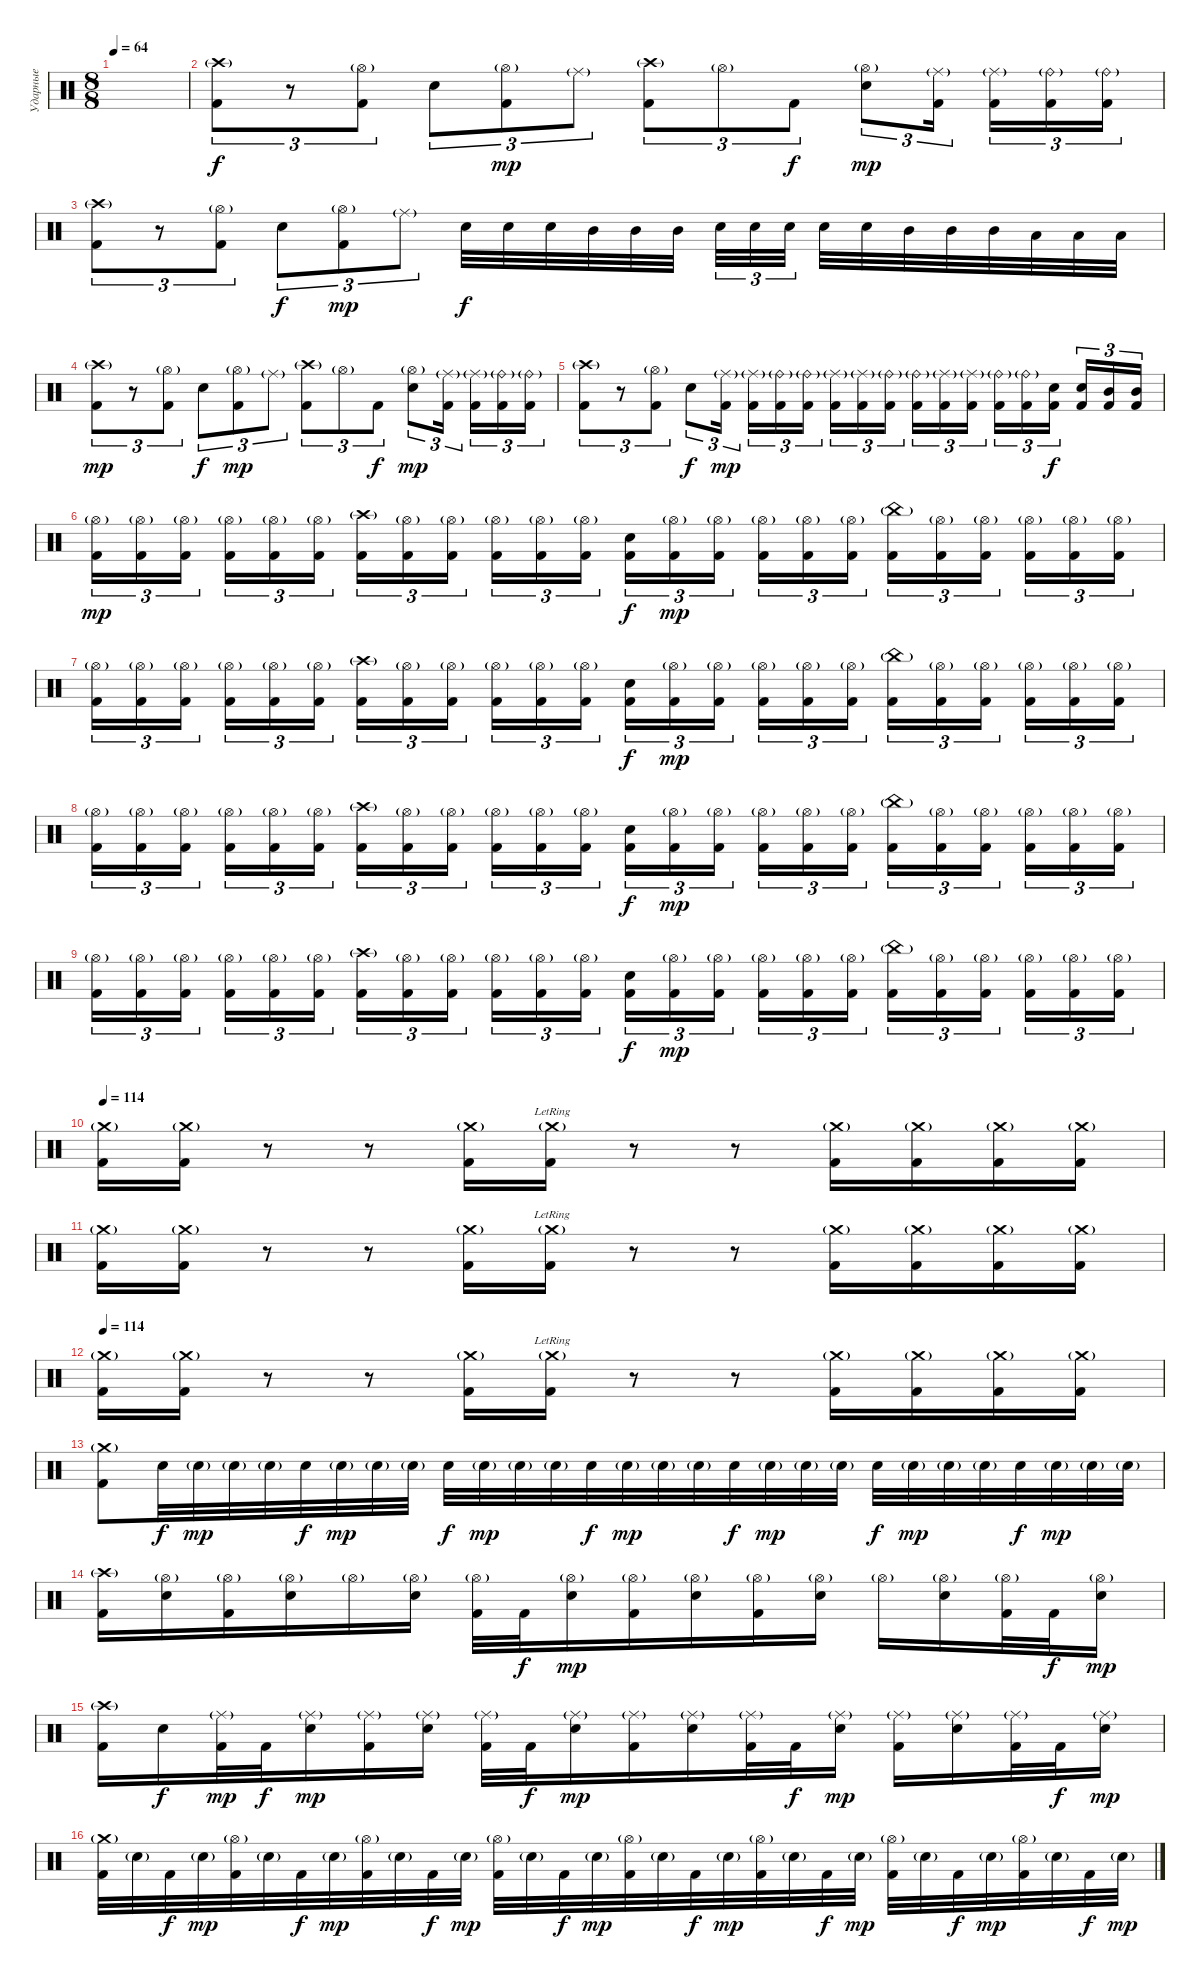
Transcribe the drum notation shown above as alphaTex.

\track ("Ударные" "Ударные") {instrument percussion}
\staff {score}
\articulation defaults
\ts (8 8)
\tempo 64
\clef neutral
\ks c
|
("Crash high (hit)"{g} "Kick (hit) 2").8{tu (3 2)} r.8{tu (3 2)} ("Hi-Hat (open)"{g} "Kick (hit) 2").8{tu (3 2)} "Electric Snare (hit)".8{tu (3 2) dy f} ("Hi-Hat (open)"{g} "Kick (hit) 2").8{tu (3 2) dy mp} "Ride (middle)"{g}.8{tu (3 2)} ("Crash high (hit)"{g} "Kick (hit) 2").8{tu (3 2)} "Hi-Hat (open)"{g}.8{tu (3 2)} "Kick (hit) 2".8{tu (3 2) dy f} ("Hi-Hat (open)"{g} "Electric Snare (hit)").8{tu (3 2) dy mp} ("Ride (middle)"{g} "Kick (hit) 2").16{tu (3 2)} ("Ride (middle)"{g} "Kick (hit) 2").16{tu (3 2)} ("Ride (bell)"{g} "Kick (hit) 2").16{tu (3 2)} ("Ride (bell)"{g} "Kick (hit) 2").16{tu (3 2)} |
("Crash high (hit)"{g} "Kick (hit) 2").8{tu (3 2)} r.8{tu (3 2)} ("Hi-Hat (open)"{g} "Kick (hit) 2").8{tu (3 2)} "Electric Snare (hit)".8{tu (3 2) dy f} ("Hi-Hat (open)"{g} "Kick (hit) 2").8{tu (3 2) dy mp} "Ride (middle)"{g}.8{tu (3 2)} "Electric Snare (hit)".32{dy f} "Electric Snare (hit)".32 "Electric Snare (hit)".32 "Mid Tom (hit)".32 "Mid Tom (hit)".32 "Mid Tom (hit)".32 "Electric Snare (hit)".32{tu (3 2)} "Electric Snare (hit)".32{tu (3 2)} "Electric Snare (hit)".32{tu (3 2)} "Electric Snare (hit)".32 "Electric Snare (hit)".32 "Mid Tom (hit)".32 "Mid Tom (hit)".32 "Mid Tom (hit)".32 "Low Tom (hit)".32 "Low Tom (hit)".32 "Low Tom (hit)".32 |
("Crash high (hit)"{g} "Kick (hit) 2").8{tu (3 2) dy mp} r.8{tu (3 2)} ("Hi-Hat (open)"{g} "Kick (hit) 2").8{tu (3 2)} "Electric Snare (hit)".8{tu (3 2) dy f} ("Hi-Hat (open)"{g} "Kick (hit) 2").8{tu (3 2) dy mp} "Ride (middle)"{g}.8{tu (3 2)} ("Crash high (hit)"{g} "Kick (hit) 2").8{tu (3 2)} "Hi-Hat (open)"{g}.8{tu (3 2)} "Kick (hit) 2".8{tu (3 2) dy f} ("Hi-Hat (open)"{g} "Electric Snare (hit)").8{tu (3 2) dy mp} ("Ride (middle)"{g} "Kick (hit) 2").16{tu (3 2)} ("Ride (middle)"{g} "Kick (hit) 2").16{tu (3 2)} ("Ride (bell)"{g} "Kick (hit) 2").16{tu (3 2)} ("Ride (bell)"{g} "Kick (hit) 2").16{tu (3 2)} |
("Crash high (hit)"{g} "Kick (hit) 2").8{tu (3 2)} r.8{tu (3 2)} ("Hi-Hat (open)"{g} "Kick (hit) 2").8{tu (3 2)} "Electric Snare (hit)".8{tu (3 2) dy f} ("Ride (middle)"{g} "Kick (hit) 2").16{tu (3 2) dy mp} ("Ride (middle)"{g} "Kick (hit) 2").16{tu (3 2)} ("Ride (bell)"{g} "Kick (hit) 2").16{tu (3 2)} ("Ride (bell)"{g} "Kick (hit) 2").16{tu (3 2)} ("Ride (middle)"{g} "Kick (hit) 2").16{tu (3 2)} ("Ride (middle)"{g} "Kick (hit) 2").16{tu (3 2)} ("Ride (bell)"{g} "Kick (hit) 2").16{tu (3 2)} ("Ride (bell)"{g} "Kick (hit) 2").16{tu (3 2)} ("Ride (middle)"{g} "Kick (hit) 2").16{tu (3 2)} ("Ride (middle)"{g} "Kick (hit) 2").16{tu (3 2)} ("Ride (bell)"{g} "Kick (hit) 2").16{tu (3 2)} ("Ride (bell)"{g} "Kick (hit) 2").16{tu (3 2)} ("Electric Snare (hit)" "Kick (hit) 2").16{tu (3 2) dy f} ("Electric Snare (hit)" "Kick (hit) 2").16{tu (3 2)} ("Mid Tom (hit)" "Kick (hit) 2").16{tu (3 2)} ("Mid Tom (hit)" "Kick (hit) 2").16{tu (3 2)} |
("Hi-Hat (open)"{g} "Kick (hit) 2").16{tu (3 2) dy mp} ("Hi-Hat (open)"{g} "Kick (hit) 2").16{tu (3 2)} ("Hi-Hat (open)"{g} "Kick (hit) 2").16{tu (3 2)} ("Hi-Hat (open)"{g} "Kick (hit) 2").16{tu (3 2)} ("Hi-Hat (open)"{g} "Kick (hit) 2").16{tu (3 2)} ("Hi-Hat (open)"{g} "Kick (hit) 2").16{tu (3 2)} ("Crash high (hit)"{g} "Kick (hit) 2").16{tu (3 2)} ("Hi-Hat (open)"{g} "Kick (hit) 2").16{tu (3 2)} ("Hi-Hat (open)"{g} "Kick (hit) 2").16{tu (3 2)} ("Hi-Hat (open)"{g} "Kick (hit) 2").16{tu (3 2)} ("Hi-Hat (open)"{g} "Kick (hit) 2").16{tu (3 2)} ("Hi-Hat (open)"{g} "Kick (hit) 2").16{tu (3 2)} ("Electric Snare (hit)" "Kick (hit) 2").16{tu (3 2) dy f} ("Hi-Hat (open)"{g} "Kick (hit) 2").16{tu (3 2) dy mp} ("Hi-Hat (open)"{g} "Kick (hit) 2").16{tu (3 2)} ("Hi-Hat (open)"{g} "Kick (hit) 2").16{tu (3 2)} ("Hi-Hat (open)"{g} "Kick (hit) 2").16{tu (3 2)} ("Hi-Hat (open)"{g} "Kick (hit) 2").16{tu (3 2)} ("China (hit)"{g} "Kick (hit) 2").16{tu (3 2)} ("Hi-Hat (open)"{g} "Kick (hit) 2").16{tu (3 2)} ("Hi-Hat (open)"{g} "Kick (hit) 2").16{tu (3 2)} ("Hi-Hat (open)"{g} "Kick (hit) 2").16{tu (3 2)} ("Hi-Hat (open)"{g} "Kick (hit) 2").16{tu (3 2)} ("Hi-Hat (open)"{g} "Kick (hit) 2").16{tu (3 2)} |
("Hi-Hat (open)"{g} "Kick (hit) 2").16{tu (3 2)} ("Hi-Hat (open)"{g} "Kick (hit) 2").16{tu (3 2)} ("Hi-Hat (open)"{g} "Kick (hit) 2").16{tu (3 2)} ("Hi-Hat (open)"{g} "Kick (hit) 2").16{tu (3 2)} ("Hi-Hat (open)"{g} "Kick (hit) 2").16{tu (3 2)} ("Hi-Hat (open)"{g} "Kick (hit) 2").16{tu (3 2)} ("Crash high (hit)"{g} "Kick (hit) 2").16{tu (3 2)} ("Hi-Hat (open)"{g} "Kick (hit) 2").16{tu (3 2)} ("Hi-Hat (open)"{g} "Kick (hit) 2").16{tu (3 2)} ("Hi-Hat (open)"{g} "Kick (hit) 2").16{tu (3 2)} ("Hi-Hat (open)"{g} "Kick (hit) 2").16{tu (3 2)} ("Hi-Hat (open)"{g} "Kick (hit) 2").16{tu (3 2)} ("Electric Snare (hit)" "Kick (hit) 2").16{tu (3 2) dy f} ("Hi-Hat (open)"{g} "Kick (hit) 2").16{tu (3 2) dy mp} ("Hi-Hat (open)"{g} "Kick (hit) 2").16{tu (3 2)} ("Hi-Hat (open)"{g} "Kick (hit) 2").16{tu (3 2)} ("Hi-Hat (open)"{g} "Kick (hit) 2").16{tu (3 2)} ("Hi-Hat (open)"{g} "Kick (hit) 2").16{tu (3 2)} ("China (hit)"{g} "Kick (hit) 2").16{tu (3 2)} ("Hi-Hat (open)"{g} "Kick (hit) 2").16{tu (3 2)} ("Hi-Hat (open)"{g} "Kick (hit) 2").16{tu (3 2)} ("Hi-Hat (open)"{g} "Kick (hit) 2").16{tu (3 2)} ("Hi-Hat (open)"{g} "Kick (hit) 2").16{tu (3 2)} ("Hi-Hat (open)"{g} "Kick (hit) 2").16{tu (3 2)} |
("Hi-Hat (open)"{g} "Kick (hit) 2").16{tu (3 2)} ("Hi-Hat (open)"{g} "Kick (hit) 2").16{tu (3 2)} ("Hi-Hat (open)"{g} "Kick (hit) 2").16{tu (3 2)} ("Hi-Hat (open)"{g} "Kick (hit) 2").16{tu (3 2)} ("Hi-Hat (open)"{g} "Kick (hit) 2").16{tu (3 2)} ("Hi-Hat (open)"{g} "Kick (hit) 2").16{tu (3 2)} ("Crash high (hit)"{g} "Kick (hit) 2").16{tu (3 2)} ("Hi-Hat (open)"{g} "Kick (hit) 2").16{tu (3 2)} ("Hi-Hat (open)"{g} "Kick (hit) 2").16{tu (3 2)} ("Hi-Hat (open)"{g} "Kick (hit) 2").16{tu (3 2)} ("Hi-Hat (open)"{g} "Kick (hit) 2").16{tu (3 2)} ("Hi-Hat (open)"{g} "Kick (hit) 2").16{tu (3 2)} ("Electric Snare (hit)" "Kick (hit) 2").16{tu (3 2) dy f} ("Hi-Hat (open)"{g} "Kick (hit) 2").16{tu (3 2) dy mp} ("Hi-Hat (open)"{g} "Kick (hit) 2").16{tu (3 2)} ("Hi-Hat (open)"{g} "Kick (hit) 2").16{tu (3 2)} ("Hi-Hat (open)"{g} "Kick (hit) 2").16{tu (3 2)} ("Hi-Hat (open)"{g} "Kick (hit) 2").16{tu (3 2)} ("China (hit)"{g} "Kick (hit) 2").16{tu (3 2)} ("Hi-Hat (open)"{g} "Kick (hit) 2").16{tu (3 2)} ("Hi-Hat (open)"{g} "Kick (hit) 2").16{tu (3 2)} ("Hi-Hat (open)"{g} "Kick (hit) 2").16{tu (3 2)} ("Hi-Hat (open)"{g} "Kick (hit) 2").16{tu (3 2)} ("Hi-Hat (open)"{g} "Kick (hit) 2").16{tu (3 2)} |
("Hi-Hat (open)"{g} "Kick (hit) 2").16{tu (3 2)} ("Hi-Hat (open)"{g} "Kick (hit) 2").16{tu (3 2)} ("Hi-Hat (open)"{g} "Kick (hit) 2").16{tu (3 2)} ("Hi-Hat (open)"{g} "Kick (hit) 2").16{tu (3 2)} ("Hi-Hat (open)"{g} "Kick (hit) 2").16{tu (3 2)} ("Hi-Hat (open)"{g} "Kick (hit) 2").16{tu (3 2)} ("Crash high (hit)"{g} "Kick (hit) 2").16{tu (3 2)} ("Hi-Hat (open)"{g} "Kick (hit) 2").16{tu (3 2)} ("Hi-Hat (open)"{g} "Kick (hit) 2").16{tu (3 2)} ("Hi-Hat (open)"{g} "Kick (hit) 2").16{tu (3 2)} ("Hi-Hat (open)"{g} "Kick (hit) 2").16{tu (3 2)} ("Hi-Hat (open)"{g} "Kick (hit) 2").16{tu (3 2)} ("Electric Snare (hit)" "Kick (hit) 2").16{tu (3 2) dy f} ("Hi-Hat (open)"{g} "Kick (hit) 2").16{tu (3 2) dy mp} ("Hi-Hat (open)"{g} "Kick (hit) 2").16{tu (3 2)} ("Hi-Hat (open)"{g} "Kick (hit) 2").16{tu (3 2)} ("Hi-Hat (open)"{g} "Kick (hit) 2").16{tu (3 2)} ("Hi-Hat (open)"{g} "Kick (hit) 2").16{tu (3 2)} ("China (hit)"{g} "Kick (hit) 2").16{tu (3 2)} ("Hi-Hat (open)"{g} "Kick (hit) 2").16{tu (3 2)} ("Hi-Hat (open)"{g} "Kick (hit) 2").16{tu (3 2)} ("Hi-Hat (open)"{g} "Kick (hit) 2").16{tu (3 2)} ("Hi-Hat (open)"{g} "Kick (hit) 2").16{tu (3 2)} ("Hi-Hat (open)"{g} "Kick (hit) 2").16{tu (3 2)} |
\tempo 114
("Crash medium (hit)"{g} "Kick (hit) 2").16 ("Crash medium (hit)"{g} "Kick (hit) 2").16 r.8 r.8 ("Crash medium (hit)"{g} "Kick (hit) 2").16 ("Crash medium (hit)"{g lr} "Kick (hit) 2").16 r.8 r.8 ("Crash medium (hit)"{g} "Kick (hit) 2").16 ("Crash medium (hit)"{g} "Kick (hit) 2").16 ("Crash medium (hit)"{g} "Kick (hit) 2").16 ("Crash medium (hit)"{g} "Kick (hit) 2").16 |
("Crash medium (hit)"{g} "Kick (hit) 2").16 ("Crash medium (hit)"{g} "Kick (hit) 2").16 r.8 r.8 ("Crash medium (hit)"{g} "Kick (hit) 2").16 ("Crash medium (hit)"{g lr} "Kick (hit) 2").16 r.8 r.8 ("Crash medium (hit)"{g} "Kick (hit) 2").16 ("Crash medium (hit)"{g} "Kick (hit) 2").16 ("Crash medium (hit)"{g} "Kick (hit) 2").16 ("Crash medium (hit)"{g} "Kick (hit) 2").16 |
\tempo 114
("Crash medium (hit)"{g} "Kick (hit) 2").16 ("Crash medium (hit)"{g} "Kick (hit) 2").16 r.8 r.8 ("Crash medium (hit)"{g} "Kick (hit) 2").16 ("Crash medium (hit)"{g lr} "Kick (hit) 2").16 r.8 r.8 ("Crash medium (hit)"{g} "Kick (hit) 2").16 ("Crash medium (hit)"{g} "Kick (hit) 2").16 ("Crash medium (hit)"{g} "Kick (hit) 2").16 ("Crash medium (hit)"{g} "Kick (hit) 2").16 |
("Crash medium (hit)"{g} "Kick (hit) 2").8 "Electric Snare (hit)".32{dy f} "Electric Snare (hit)"{g}.32{dy mp} "Electric Snare (hit)"{g}.32 "Electric Snare (hit)"{g}.32 "Electric Snare (hit)".32{dy f} "Electric Snare (hit)"{g}.32{dy mp} "Electric Snare (hit)"{g}.32 "Electric Snare (hit)"{g}.32 "Electric Snare (hit)".32{dy f} "Electric Snare (hit)"{g}.32{dy mp} "Electric Snare (hit)"{g}.32 "Electric Snare (hit)"{g}.32 "Electric Snare (hit)".32{dy f} "Electric Snare (hit)"{g}.32{dy mp} "Electric Snare (hit)"{g}.32 "Electric Snare (hit)"{g}.32 "Electric Snare (hit)".32{dy f} "Electric Snare (hit)"{g}.32{dy mp} "Electric Snare (hit)"{g}.32 "Electric Snare (hit)"{g}.32 "Electric Snare (hit)".32{dy f} "Electric Snare (hit)"{g}.32{dy mp} "Electric Snare (hit)"{g}.32 "Electric Snare (hit)"{g}.32 "Electric Snare (hit)".32{dy f} "Electric Snare (hit)"{g}.32{dy mp} "Electric Snare (hit)"{g}.32 "Electric Snare (hit)"{g}.32 |
("Crash high (hit)"{g} "Kick (hit) 2").16 ("Hi-Hat (open)"{g} "Electric Snare (hit)").16 ("Hi-Hat (open)"{g} "Kick (hit) 2").16 ("Hi-Hat (open)"{g} "Electric Snare (hit)").16 "Hi-Hat (open)"{g}.16 ("Hi-Hat (open)"{g} "Electric Snare (hit)").16 ("Hi-Hat (open)"{g} "Kick (hit) 2").32 "Kick (hit) 2".32{dy f} ("Hi-Hat (open)"{g} "Electric Snare (hit)").16{dy mp} ("Hi-Hat (open)"{g} "Kick (hit) 2").16 ("Hi-Hat (open)"{g} "Electric Snare (hit)").16 ("Hi-Hat (open)"{g} "Kick (hit) 2").16 ("Hi-Hat (open)"{g} "Electric Snare (hit)").16 "Hi-Hat (open)"{g}.16 ("Hi-Hat (open)"{g} "Electric Snare (hit)").16 ("Hi-Hat (open)"{g} "Kick (hit) 2").32 "Kick (hit) 2".32{dy f} ("Hi-Hat (open)"{g} "Electric Snare (hit)").16{dy mp} |
("Crash high (hit)"{g} "Kick (hit) 2").16 "Electric Snare (hit)".16{dy f} ("Ride (middle)"{g} "Kick (hit) 2").32{dy mp} "Kick (hit) 2".32{dy f} ("Ride (middle)"{g} "Electric Snare (hit)").16{dy mp} ("Ride (middle)"{g} "Kick (hit) 2").16 ("Ride (middle)"{g} "Electric Snare (hit)").16 ("Ride (middle)"{g} "Kick (hit) 2").32 "Kick (hit) 2".32{dy f} ("Ride (middle)"{g} "Electric Snare (hit)").16{dy mp} ("Ride (middle)"{g} "Kick (hit) 2").16 ("Ride (middle)"{g} "Electric Snare (hit)").16 ("Ride (middle)"{g} "Kick (hit) 2").32 "Kick (hit) 2".32{dy f} ("Ride (middle)"{g} "Electric Snare (hit)").16{dy mp} ("Ride (middle)"{g} "Kick (hit) 2").16 ("Ride (middle)"{g} "Electric Snare (hit)").16 ("Ride (middle)"{g} "Kick (hit) 2").32 "Kick (hit) 2".32{dy f} ("Ride (middle)"{g} "Electric Snare (hit)").16{dy mp} |
("Crash medium (hit)"{g} "Kick (hit) 2").32 "Electric Snare (hit)"{g}.32 "Kick (hit) 2".32{dy f} "Electric Snare (hit)"{g}.32{dy mp} ("Hi-Hat (open)"{g} "Kick (hit) 2").32 "Electric Snare (hit)"{g}.32 "Kick (hit) 2".32{dy f} "Electric Snare (hit)"{g}.32{dy mp} ("Hi-Hat (open)"{g} "Kick (hit) 2").32 "Electric Snare (hit)"{g}.32 "Kick (hit) 2".32{dy f} "Electric Snare (hit)"{g}.32{dy mp} ("Hi-Hat (open)"{g} "Kick (hit) 2").32 "Electric Snare (hit)"{g}.32 "Kick (hit) 2".32{dy f} "Electric Snare (hit)"{g}.32{dy mp} ("Hi-Hat (open)"{g} "Kick (hit) 2").32 "Electric Snare (hit)"{g}.32 "Kick (hit) 2".32{dy f} "Electric Snare (hit)"{g}.32{dy mp} ("Hi-Hat (open)"{g} "Kick (hit) 2").32 "Electric Snare (hit)"{g}.32 "Kick (hit) 2".32{dy f} "Electric Snare (hit)"{g}.32{dy mp} ("Hi-Hat (open)"{g} "Kick (hit) 2").32 "Electric Snare (hit)"{g}.32 "Kick (hit) 2".32{dy f} "Electric Snare (hit)"{g}.32{dy mp} ("Hi-Hat (open)"{g} "Kick (hit) 2").32 "Electric Snare (hit)"{g}.32 "Kick (hit) 2".32{dy f} "Electric Snare (hit)"{g}.32{dy mp}
